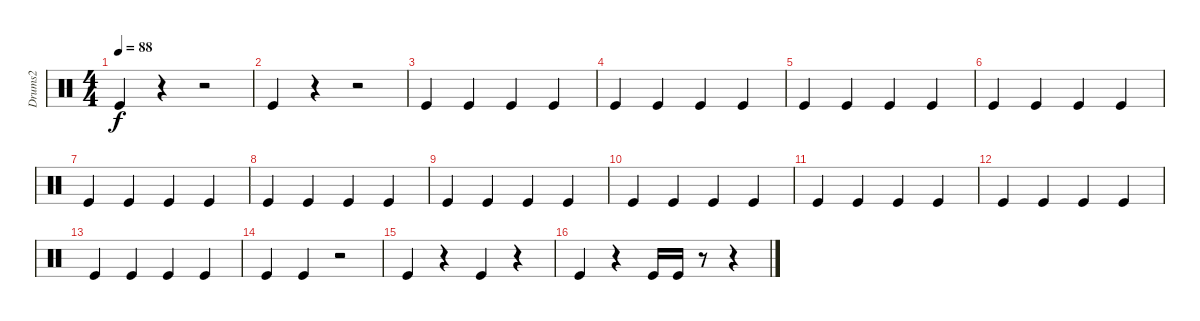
\track ("Drums2" "Drums2") {instrument percussion}
\staff {score}
\articulation defaults
\ts (4 4)
\tempo 88
\clef neutral
\ks c "Kick (hit)".4{dy f}
r.4 r.2 |
"Kick (hit)".4 r.4 r.2 |
"Kick (hit)".4 "Kick (hit)".4 "Kick (hit)".4 "Kick (hit)".4 |
"Kick (hit)".4 "Kick (hit)".4 "Kick (hit)".4 "Kick (hit)".4 |
"Kick (hit)".4 "Kick (hit)".4 "Kick (hit)".4 "Kick (hit)".4 |
"Kick (hit)".4 "Kick (hit)".4 "Kick (hit)".4 "Kick (hit)".4 |
"Kick (hit)".4 "Kick (hit)".4 "Kick (hit)".4 "Kick (hit)".4 |
"Kick (hit)".4 "Kick (hit)".4 "Kick (hit)".4 "Kick (hit)".4 |
"Kick (hit)".4 "Kick (hit)".4 "Kick (hit)".4 "Kick (hit)".4 |
"Kick (hit)".4 "Kick (hit)".4 "Kick (hit)".4 "Kick (hit)".4 |
"Kick (hit)".4 "Kick (hit)".4 "Kick (hit)".4 "Kick (hit)".4 |
"Kick (hit)".4 "Kick (hit)".4 "Kick (hit)".4 "Kick (hit)".4 |
"Kick (hit)".4 "Kick (hit)".4 "Kick (hit)".4 "Kick (hit)".4 |
"Kick (hit)".4 "Kick (hit)".4 r.2 |
"Kick (hit)".4 r.4 "Kick (hit)".4 r.4 |
"Kick (hit)".4 r.4 "Kick (hit)".16 "Kick (hit)".16 r.8 r.4
